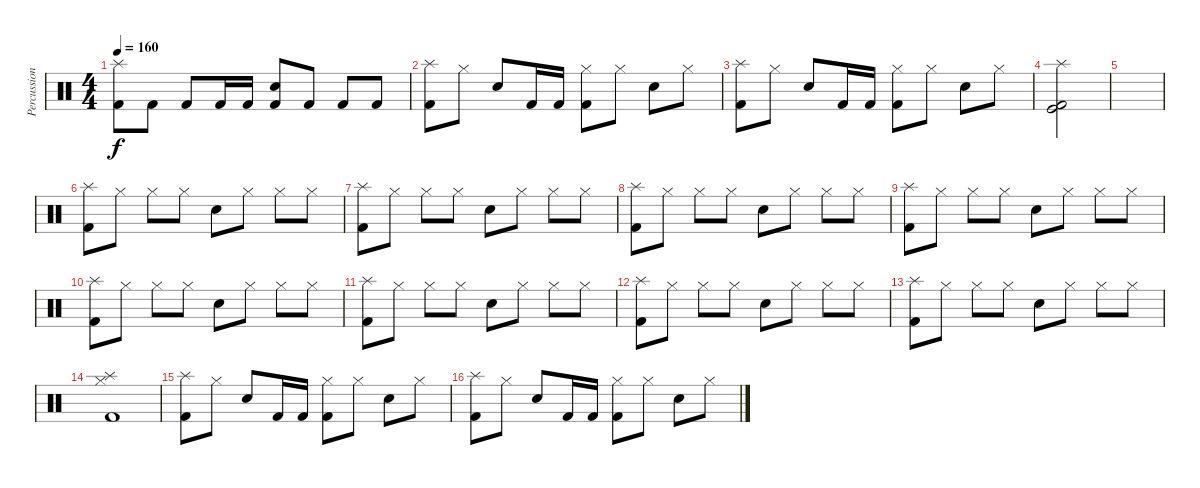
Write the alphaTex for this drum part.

\track ("Percussion" "Percussion") {instrument percussion}
\staff {score}
\articulation defaults
\ts (4 4)
\tempo 160
\clef neutral
\ks c
("Splash (hit)" "Kick (hit) 2").8{dy f} "Kick (hit) 2".8 "Kick (hit) 2".8 "Kick (hit) 2".16 "Kick (hit) 2".16 ("Snare (hit) 2" "Kick (hit) 2").8 "Kick (hit) 2".8 "Kick (hit) 2".8 "Kick (hit) 2".8 |
("Splash (hit)" "Kick (hit) 2").8 "Hi-Hat (closed)".8 "Snare (hit) 2".8 "Kick (hit) 2".16 "Kick (hit) 2".16 ("Hi-Hat (closed)" "Kick (hit) 2").8 "Hi-Hat (closed)".8 "Snare (hit) 2".8 "Hi-Hat (closed)".8 |
("Splash (hit)" "Kick (hit) 2").8 "Hi-Hat (closed)".8 "Snare (hit) 2".8 "Kick (hit) 2".16 "Kick (hit) 2".16 ("Hi-Hat (closed)" "Kick (hit) 2").8 "Hi-Hat (closed)".8 "Snare (hit) 2".8 "Hi-Hat (closed)".8 |
("Splash (hit)" "Kick (hit)" "Kick (hit) 2").2 |
|
("Splash (hit)" "Kick (hit) 2").8 "Hi-Hat (closed)".8 "Hi-Hat (closed)".8 "Hi-Hat (closed)".8 "Snare (hit) 2".8 "Hi-Hat (closed)".8 "Hi-Hat (closed)".8 "Hi-Hat (closed)".8 |
("Splash (hit)" "Kick (hit) 2").8 "Hi-Hat (closed)".8 "Hi-Hat (closed)".8 "Hi-Hat (closed)".8 "Snare (hit) 2".8 "Hi-Hat (closed)".8 "Hi-Hat (closed)".8 "Hi-Hat (closed)".8 |
("Splash (hit)" "Kick (hit) 2").8 "Hi-Hat (closed)".8 "Hi-Hat (closed)".8 "Hi-Hat (closed)".8 "Snare (hit) 2".8 "Hi-Hat (closed)".8 "Hi-Hat (closed)".8 "Hi-Hat (closed)".8 |
("Splash (hit)" "Kick (hit) 2").8 "Hi-Hat (closed)".8 "Hi-Hat (closed)".8 "Hi-Hat (closed)".8 "Snare (hit) 2".8 "Hi-Hat (closed)".8 "Hi-Hat (closed)".8 "Hi-Hat (closed)".8 |
("Splash (hit)" "Kick (hit) 2").8 "Hi-Hat (closed)".8 "Hi-Hat (closed)".8 "Hi-Hat (closed)".8 "Snare (hit) 2".8 "Hi-Hat (closed)".8 "Hi-Hat (closed)".8 "Hi-Hat (closed)".8 |
("Splash (hit)" "Kick (hit) 2").8 "Hi-Hat (closed)".8 "Hi-Hat (closed)".8 "Hi-Hat (closed)".8 "Snare (hit) 2".8 "Hi-Hat (closed)".8 "Hi-Hat (closed)".8 "Hi-Hat (closed)".8 |
("Splash (hit)" "Kick (hit) 2").8 "Hi-Hat (closed)".8 "Hi-Hat (closed)".8 "Hi-Hat (closed)".8 "Snare (hit) 2".8 "Hi-Hat (closed)".8 "Hi-Hat (closed)".8 "Hi-Hat (closed)".8 |
("Splash (hit)" "Kick (hit) 2").8 "Hi-Hat (closed)".8 "Hi-Hat (closed)".8 "Hi-Hat (closed)".8 "Snare (hit) 2".8 "Hi-Hat (closed)".8 "Hi-Hat (closed)".8 "Hi-Hat (closed)".8 |
("Splash (hit)" "Hi-Hat (closed)" "Kick (hit) 2").1 |
("Splash (hit)" "Kick (hit) 2").8 "Hi-Hat (closed)".8 "Snare (hit) 2".8 "Kick (hit) 2".16 "Kick (hit) 2".16 ("Hi-Hat (closed)" "Kick (hit) 2").8 "Hi-Hat (closed)".8 "Snare (hit) 2".8 "Hi-Hat (closed)".8 |
("Splash (hit)" "Kick (hit) 2").8 "Hi-Hat (closed)".8 "Snare (hit) 2".8 "Kick (hit) 2".16 "Kick (hit) 2".16 ("Hi-Hat (closed)" "Kick (hit) 2").8 "Hi-Hat (closed)".8 "Snare (hit) 2".8 "Hi-Hat (closed)".8
